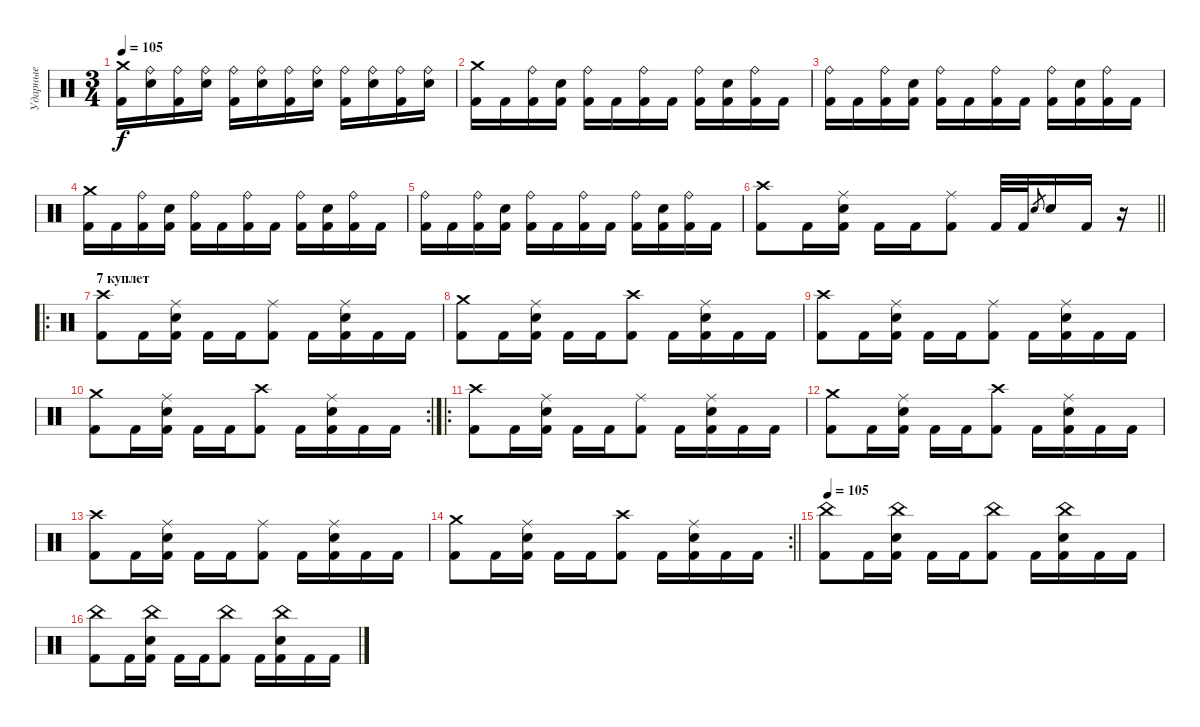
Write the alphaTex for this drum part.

\track ("Ударные" "Ударные") {instrument percussion}
\staff {score}
\articulation defaults
\ts (3 4)
\tempo 105
\clef neutral
\ks c
("Kick (hit) 2" "Crash medium (hit)").16{dy f} ("Snare (hit) 2" "Ride (bell)").16 ("Kick (hit) 2" "Ride (bell)").16 ("Snare (hit) 2" "Ride (bell)").16 ("Kick (hit) 2" "Ride (bell)").16 ("Snare (hit) 2" "Ride (bell)").16 ("Kick (hit) 2" "Ride (bell)").16 ("Snare (hit) 2" "Ride (bell)").16 ("Kick (hit) 2" "Ride (bell)").16 ("Snare (hit) 2" "Ride (bell)").16 ("Kick (hit) 2" "Ride (bell)").16 ("Snare (hit) 2" "Ride (bell)").16 |
("Kick (hit) 2" "Crash medium (hit)").16 "Kick (hit) 2".16 ("Kick (hit) 2" "Ride (bell)").16 ("Kick (hit) 2" "Snare (hit) 2").16 ("Kick (hit) 2" "Ride (bell)").16 "Kick (hit) 2".16 ("Kick (hit) 2" "Ride (bell)").16 "Kick (hit) 2".16 ("Kick (hit) 2" "Ride (bell)").16 ("Kick (hit) 2" "Snare (hit) 2").16 ("Kick (hit) 2" "Ride (bell)").16 "Kick (hit) 2".16 |
("Kick (hit) 2" "Ride (bell)").16 "Kick (hit) 2".16 ("Kick (hit) 2" "Ride (bell)").16 ("Kick (hit) 2" "Snare (hit) 2").16 ("Kick (hit) 2" "Ride (bell)").16 "Kick (hit) 2".16 ("Kick (hit) 2" "Ride (bell)").16 "Kick (hit) 2".16 ("Kick (hit) 2" "Ride (bell)").16 ("Kick (hit) 2" "Snare (hit) 2").16 ("Kick (hit) 2" "Ride (bell)").16 "Kick (hit) 2".16 |
("Kick (hit) 2" "Crash medium (hit)").16 "Kick (hit) 2".16 ("Kick (hit) 2" "Ride (bell)").16 ("Kick (hit) 2" "Snare (hit) 2").16 ("Kick (hit) 2" "Ride (bell)").16 "Kick (hit) 2".16 ("Kick (hit) 2" "Ride (bell)").16 "Kick (hit) 2".16 ("Kick (hit) 2" "Ride (bell)").16 ("Kick (hit) 2" "Snare (hit) 2").16 ("Kick (hit) 2" "Ride (bell)").16 "Kick (hit) 2".16 |
("Kick (hit) 2" "Ride (bell)").16 "Kick (hit) 2".16 ("Kick (hit) 2" "Ride (bell)").16 ("Kick (hit) 2" "Snare (hit) 2").16 ("Kick (hit) 2" "Ride (bell)").16 "Kick (hit) 2".16 ("Kick (hit) 2" "Ride (bell)").16 "Kick (hit) 2".16 ("Kick (hit) 2" "Ride (bell)").16 ("Kick (hit) 2" "Snare (hit) 2").16 ("Kick (hit) 2" "Ride (bell)").16 "Kick (hit) 2".16 |
\barLineRight lightlight
("Kick (hit) 2" "Crash high (hit)").8 "Kick (hit) 2".16 ("Kick (hit) 2" "Snare (hit) 2" "Ride (middle)").16 "Kick (hit) 2".16 "Kick (hit) 2".16 ("Kick (hit) 2" "Ride (middle)").8 "Kick (hit) 2".32 "Kick (hit) 2".32 "Electric Snare (hit)".8{gr} "Snare (hit) 2".16 "Kick (hit) 2".16 r.16 |
\ro
\section ("" "7 куплет")
("Kick (hit) 2" "Crash high (hit)").8 "Kick (hit) 2".16 ("Kick (hit) 2" "Snare (hit) 2" "Ride (middle)").16 "Kick (hit) 2".16 "Kick (hit) 2".16 ("Kick (hit) 2" "Ride (middle)").8 "Kick (hit) 2".16 ("Kick (hit) 2" "Snare (hit) 2" "Ride (middle)").16 "Kick (hit) 2".16 "Kick (hit) 2".16 |
("Kick (hit) 2" "Crash medium (hit)").8 "Kick (hit) 2".16 ("Kick (hit) 2" "Snare (hit) 2" "Ride (middle)").16 "Kick (hit) 2".16 "Kick (hit) 2".16 ("Kick (hit) 2" "Crash high (hit)").8 "Kick (hit) 2".16 ("Kick (hit) 2" "Snare (hit) 2" "Ride (middle)").16 "Kick (hit) 2".16 "Kick (hit) 2".16 |
("Kick (hit) 2" "Crash high (hit)").8 "Kick (hit) 2".16 ("Kick (hit) 2" "Snare (hit) 2" "Ride (middle)").16 "Kick (hit) 2".16 "Kick (hit) 2".16 ("Kick (hit) 2" "Ride (middle)").8 "Kick (hit) 2".16 ("Kick (hit) 2" "Snare (hit) 2" "Ride (middle)").16 "Kick (hit) 2".16 "Kick (hit) 2".16 |
\rc 2
("Kick (hit) 2" "Crash medium (hit)").8 "Kick (hit) 2".16 ("Kick (hit) 2" "Snare (hit) 2" "Ride (middle)").16 "Kick (hit) 2".16 "Kick (hit) 2".16 ("Kick (hit) 2" "Crash high (hit)").8 "Kick (hit) 2".16 ("Kick (hit) 2" "Snare (hit) 2" "Ride (middle)").16 "Kick (hit) 2".16 "Kick (hit) 2".16 |
\ro
("Kick (hit) 2" "Crash high (hit)").8 "Kick (hit) 2".16 ("Kick (hit) 2" "Snare (hit) 2" "Ride (middle)").16 "Kick (hit) 2".16 "Kick (hit) 2".16 ("Kick (hit) 2" "Ride (middle)").8 "Kick (hit) 2".16 ("Kick (hit) 2" "Snare (hit) 2" "Ride (middle)").16 "Kick (hit) 2".16 "Kick (hit) 2".16 |
("Kick (hit) 2" "Crash medium (hit)").8 "Kick (hit) 2".16 ("Kick (hit) 2" "Snare (hit) 2" "Ride (middle)").16 "Kick (hit) 2".16 "Kick (hit) 2".16 ("Kick (hit) 2" "Crash high (hit)").8 "Kick (hit) 2".16 ("Kick (hit) 2" "Snare (hit) 2" "Ride (middle)").16 "Kick (hit) 2".16 "Kick (hit) 2".16 |
("Kick (hit) 2" "Crash high (hit)").8 "Kick (hit) 2".16 ("Kick (hit) 2" "Snare (hit) 2" "Ride (middle)").16 "Kick (hit) 2".16 "Kick (hit) 2".16 ("Kick (hit) 2" "Ride (middle)").8 "Kick (hit) 2".16 ("Kick (hit) 2" "Snare (hit) 2" "Ride (middle)").16 "Kick (hit) 2".16 "Kick (hit) 2".16 |
\rc 2
\barLineRight lightlight
("Kick (hit) 2" "Crash medium (hit)").8 "Kick (hit) 2".16 ("Kick (hit) 2" "Snare (hit) 2" "Ride (middle)").16 "Kick (hit) 2".16 "Kick (hit) 2".16 ("Kick (hit) 2" "Crash high (hit)").8 "Kick (hit) 2".16 ("Kick (hit) 2" "Snare (hit) 2" "Ride (middle)").16 "Kick (hit) 2".16 "Kick (hit) 2".16 |
\tempo 105
("Kick (hit) 2" "China (hit)").8 "Kick (hit) 2".16 ("Kick (hit) 2" "Snare (hit) 2" "China (hit)").16 "Kick (hit) 2".16 "Kick (hit) 2".16 ("Kick (hit) 2" "China (hit)").8 "Kick (hit) 2".16 ("Kick (hit) 2" "Snare (hit) 2" "China (hit)").16 "Kick (hit) 2".16 "Kick (hit) 2".16 |
("Kick (hit) 2" "China (hit)").8 "Kick (hit) 2".16 ("Kick (hit) 2" "Snare (hit) 2" "China (hit)").16 "Kick (hit) 2".16 "Kick (hit) 2".16 ("Kick (hit) 2" "China (hit)").8 "Kick (hit) 2".16 ("Kick (hit) 2" "Snare (hit) 2" "China (hit)").16 "Kick (hit) 2".16 "Kick (hit) 2".16
